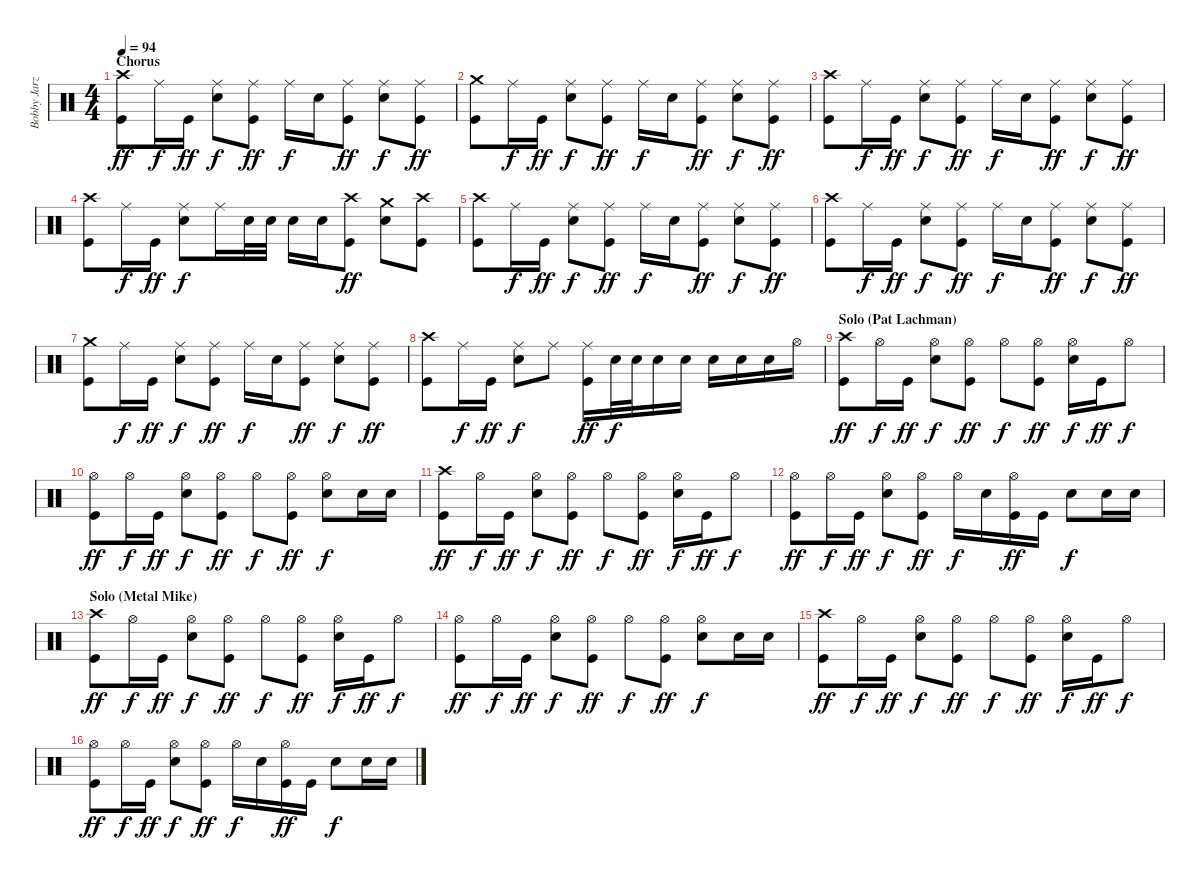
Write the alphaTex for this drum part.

\track ("Bobby Jarzombek" "Bobby Jarz") {instrument percussion}
\staff {score}
\articulation defaults
\ts (4 4)
\section ("" "Chorus")
\tempo 94
\clef neutral
\ks c
("Crash high (hit)" "Kick (hit)").8{dy ff} "Ride (middle)".16{dy f} "Kick (hit)".16{dy ff} ("Ride (middle)" "Electric Snare (hit)").8{dy f} ("Ride (middle)" "Kick (hit)").8{dy ff} "Ride (middle)".16{dy f} "Electric Snare (hit)".16 ("Ride (middle)" "Kick (hit)").8{dy ff} ("Ride (middle)" "Electric Snare (hit)").8{dy f} ("Ride (middle)" "Kick (hit)").8{dy ff} |
("Crash medium (hit)" "Kick (hit)").8 "Ride (middle)".16{dy f} "Kick (hit)".16{dy ff} ("Ride (middle)" "Electric Snare (hit)").8{dy f} ("Ride (middle)" "Kick (hit)").8{dy ff} "Ride (middle)".16{dy f} "Electric Snare (hit)".16 ("Ride (middle)" "Kick (hit)").8{dy ff} ("Ride (middle)" "Electric Snare (hit)").8{dy f} ("Ride (middle)" "Kick (hit)").8{dy ff} |
("Crash high (hit)" "Kick (hit)").8 "Ride (middle)".16{dy f} "Kick (hit)".16{dy ff} ("Ride (middle)" "Electric Snare (hit)").8{dy f} ("Ride (middle)" "Kick (hit)").8{dy ff} "Ride (middle)".16{dy f} "Electric Snare (hit)".16 ("Ride (middle)" "Kick (hit)").8{dy ff} ("Ride (middle)" "Electric Snare (hit)").8{dy f} ("Ride (middle)" "Kick (hit)").8{dy ff} |
("Crash high (hit)" "Kick (hit)").8 "Ride (middle)".16{dy f} "Kick (hit)".16{dy ff} ("Ride (middle)" "Electric Snare (hit)").8{dy f} "Ride (middle)".16 "Electric Snare (hit)".32 "Electric Snare (hit)".32 "Electric Snare (hit)".16 "Electric Snare (hit)".16 ("Crash high (hit)" "Kick (hit)").8{dy ff} ("Crash medium (hit)" "Electric Snare (hit)").8 ("Crash high (hit)" "Kick (hit)").8 |
("Crash high (hit)" "Kick (hit)").8 "Ride (middle)".16{dy f} "Kick (hit)".16{dy ff} ("Ride (middle)" "Electric Snare (hit)").8{dy f} ("Ride (middle)" "Kick (hit)").8{dy ff} "Ride (middle)".16{dy f} "Electric Snare (hit)".16 ("Ride (middle)" "Kick (hit)").8{dy ff} ("Ride (middle)" "Electric Snare (hit)").8{dy f} ("Ride (middle)" "Kick (hit)").8{dy ff} |
("Crash high (hit)" "Kick (hit)").8 "Ride (middle)".16{dy f} "Kick (hit)".16{dy ff} ("Ride (middle)" "Electric Snare (hit)").8{dy f} ("Ride (middle)" "Kick (hit)").8{dy ff} "Ride (middle)".16{dy f} "Electric Snare (hit)".16 ("Ride (middle)" "Kick (hit)").8{dy ff} ("Ride (middle)" "Electric Snare (hit)").8{dy f} ("Ride (middle)" "Kick (hit)").8{dy ff} |
("Crash medium (hit)" "Kick (hit)").8 "Ride (middle)".16{dy f} "Kick (hit)".16{dy ff} ("Ride (middle)" "Electric Snare (hit)").8{dy f} ("Ride (middle)" "Kick (hit)").8{dy ff} "Ride (middle)".16{dy f} "Electric Snare (hit)".16 ("Ride (middle)" "Kick (hit)").8{dy ff} ("Ride (middle)" "Electric Snare (hit)").8{dy f} ("Ride (middle)" "Kick (hit)").8{dy ff} |
("Crash high (hit)" "Kick (hit)").8 "Ride (middle)".16{dy f} "Kick (hit)".16{dy ff} ("Ride (middle)" "Electric Snare (hit)").8{dy f} "Ride (middle)".8 ("Ride (middle)" "Kick (hit)").16{dy ff} "Electric Snare (hit)".32{dy f} "Electric Snare (hit)".32 "Electric Snare (hit)".16 "Electric Snare (hit)".16 "Electric Snare (hit)".16 "Electric Snare (hit)".16 "Electric Snare (hit)".16 "Hi-Hat (open)".16 |
\section ("" "Solo (Pat Lachman)")
("Crash high (hit)" "Kick (hit)").8{dy ff} "Hi-Hat (open)".16{dy f} "Kick (hit)".16{dy ff} ("Hi-Hat (open)" "Electric Snare (hit)").8{dy f} ("Hi-Hat (open)" "Kick (hit)").8{dy ff} "Hi-Hat (open)".8{dy f} ("Hi-Hat (open)" "Kick (hit)").8{dy ff} ("Hi-Hat (open)" "Electric Snare (hit)").16{dy f} "Kick (hit)".16{dy ff} "Hi-Hat (open)".8{dy f} |
("Hi-Hat (open)" "Kick (hit)").8{dy ff} "Hi-Hat (open)".16{dy f} "Kick (hit)".16{dy ff} ("Hi-Hat (open)" "Electric Snare (hit)").8{dy f} ("Hi-Hat (open)" "Kick (hit)").8{dy ff} "Hi-Hat (open)".8{dy f} ("Hi-Hat (open)" "Kick (hit)").8{dy ff} ("Hi-Hat (open)" "Electric Snare (hit)").8{dy f} "Electric Snare (hit)".16 "Electric Snare (hit)".16 |
("Crash high (hit)" "Kick (hit)").8{dy ff} "Hi-Hat (open)".16{dy f} "Kick (hit)".16{dy ff} ("Hi-Hat (open)" "Electric Snare (hit)").8{dy f} ("Hi-Hat (open)" "Kick (hit)").8{dy ff} "Hi-Hat (open)".8{dy f} ("Hi-Hat (open)" "Kick (hit)").8{dy ff} ("Hi-Hat (open)" "Electric Snare (hit)").16{dy f} "Kick (hit)".16{dy ff} "Hi-Hat (open)".8{dy f} |
("Hi-Hat (open)" "Kick (hit)").8{dy ff} "Hi-Hat (open)".16{dy f} "Kick (hit)".16{dy ff} ("Hi-Hat (open)" "Electric Snare (hit)").8{dy f} ("Hi-Hat (open)" "Kick (hit)").8{dy ff} "Hi-Hat (open)".16{dy f} "Electric Snare (hit)".16 ("Hi-Hat (open)" "Kick (hit)").16{dy ff} "Kick (hit)".16 "Electric Snare (hit)".8{dy f} "Electric Snare (hit)".16 "Electric Snare (hit)".16 |
\section ("" "Solo (Metal Mike)")
("Crash high (hit)" "Kick (hit)").8{dy ff} "Hi-Hat (open)".16{dy f} "Kick (hit)".16{dy ff} ("Hi-Hat (open)" "Electric Snare (hit)").8{dy f} ("Hi-Hat (open)" "Kick (hit)").8{dy ff} "Hi-Hat (open)".8{dy f} ("Hi-Hat (open)" "Kick (hit)").8{dy ff} ("Hi-Hat (open)" "Electric Snare (hit)").16{dy f} "Kick (hit)".16{dy ff} "Hi-Hat (open)".8{dy f} |
("Hi-Hat (open)" "Kick (hit)").8{dy ff} "Hi-Hat (open)".16{dy f} "Kick (hit)".16{dy ff} ("Hi-Hat (open)" "Electric Snare (hit)").8{dy f} ("Hi-Hat (open)" "Kick (hit)").8{dy ff} "Hi-Hat (open)".8{dy f} ("Hi-Hat (open)" "Kick (hit)").8{dy ff} ("Hi-Hat (open)" "Electric Snare (hit)").8{dy f} "Electric Snare (hit)".16 "Electric Snare (hit)".16 |
("Crash high (hit)" "Kick (hit)").8{dy ff} "Hi-Hat (open)".16{dy f} "Kick (hit)".16{dy ff} ("Hi-Hat (open)" "Electric Snare (hit)").8{dy f} ("Hi-Hat (open)" "Kick (hit)").8{dy ff} "Hi-Hat (open)".8{dy f} ("Hi-Hat (open)" "Kick (hit)").8{dy ff} ("Hi-Hat (open)" "Electric Snare (hit)").16{dy f} "Kick (hit)".16{dy ff} "Hi-Hat (open)".8{dy f} |
("Hi-Hat (open)" "Kick (hit)").8{dy ff} "Hi-Hat (open)".16{dy f} "Kick (hit)".16{dy ff} ("Hi-Hat (open)" "Electric Snare (hit)").8{dy f} ("Hi-Hat (open)" "Kick (hit)").8{dy ff} "Hi-Hat (open)".16{dy f} "Electric Snare (hit)".16 ("Hi-Hat (open)" "Kick (hit)").16{dy ff} "Kick (hit)".16 "Electric Snare (hit)".8{dy f} "Electric Snare (hit)".16 "Electric Snare (hit)".16
